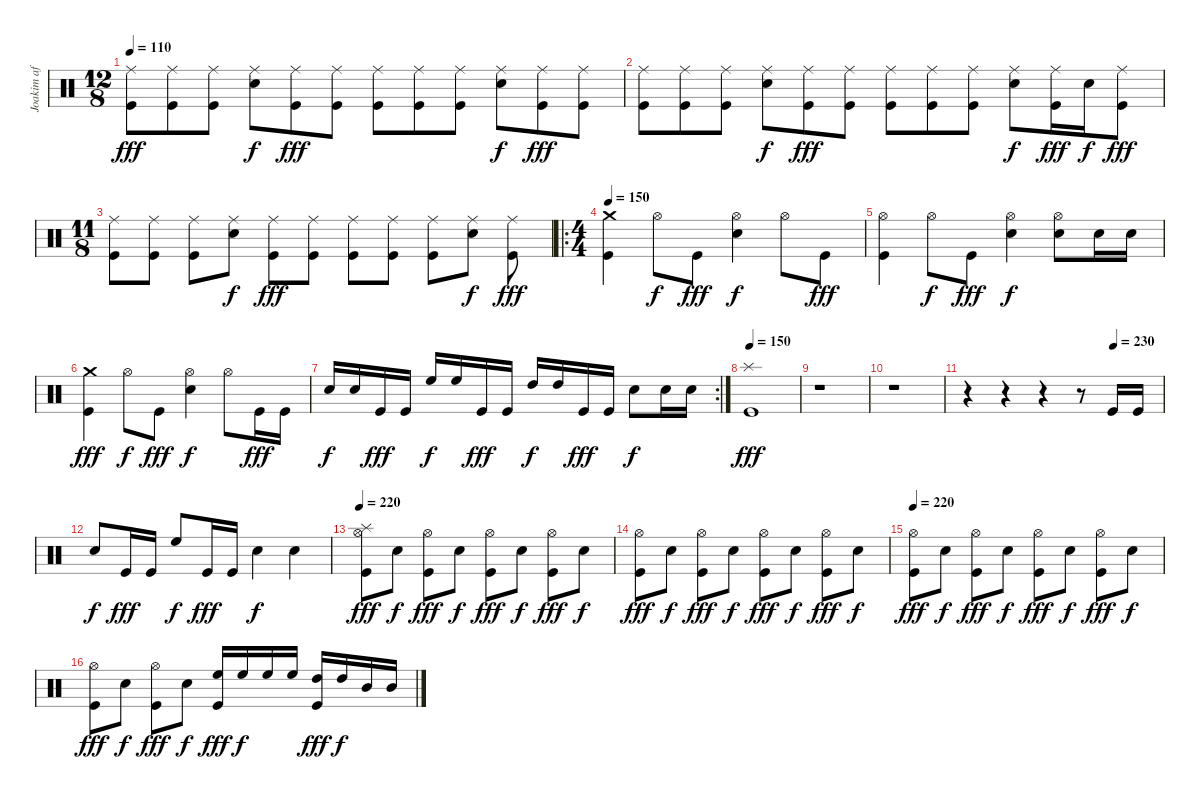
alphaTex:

\track ("Joakim af Grave" "Joakim af ") {instrument percussion}
\staff {score}
\articulation defaults
\ts (12 8)
\tempo 110
\clef neutral
\ks c
("Ride (middle)" "Kick (hit)").8{dy fff} ("Ride (middle)" "Kick (hit)").8 ("Ride (middle)" "Kick (hit)").8 ("Ride (middle)" "Electric Snare (hit)").8{dy f} ("Ride (middle)" "Kick (hit)").8{dy fff} ("Ride (middle)" "Kick (hit)").8 ("Ride (middle)" "Kick (hit)").8 ("Ride (middle)" "Kick (hit)").8 ("Ride (middle)" "Kick (hit)").8 ("Ride (middle)" "Electric Snare (hit)").8{dy f} ("Ride (middle)" "Kick (hit)").8{dy fff} ("Ride (middle)" "Kick (hit)").8 |
("Ride (middle)" "Kick (hit)").8 ("Ride (middle)" "Kick (hit)").8 ("Ride (middle)" "Kick (hit)").8 ("Ride (middle)" "Electric Snare (hit)").8{dy f} ("Ride (middle)" "Kick (hit)").8{dy fff} ("Ride (middle)" "Kick (hit)").8 ("Ride (middle)" "Kick (hit)").8 ("Ride (middle)" "Kick (hit)").8 ("Ride (middle)" "Kick (hit)").8 ("Ride (middle)" "Electric Snare (hit)").8{dy f} ("Ride (middle)" "Kick (hit)").16{dy fff} "Electric Snare (hit)".16{dy f} ("Ride (middle)" "Kick (hit)").8{dy fff} |
\ts (11 8)
("Ride (middle)" "Kick (hit)").8 ("Ride (middle)" "Kick (hit)").8 ("Ride (middle)" "Kick (hit)").8 ("Ride (middle)" "Electric Snare (hit)").8{dy f} ("Ride (middle)" "Kick (hit)").8{dy fff} ("Ride (middle)" "Kick (hit)").8 ("Ride (middle)" "Kick (hit)").8 ("Ride (middle)" "Kick (hit)").8 ("Ride (middle)" "Kick (hit)").8 ("Ride (middle)" "Electric Snare (hit)").8{dy f} ("Ride (middle)" "Kick (hit)").8{dy fff} |
\ro
\ts (4 4)
\tempo 150
("Crash medium (hit)" "Kick (hit)").4 "Hi-Hat (open)".8{dy f} "Kick (hit)".8{dy fff} ("Hi-Hat (open)" "Electric Snare (hit)").4{dy f} "Hi-Hat (open)".8 "Kick (hit)".8{dy fff} |
("Hi-Hat (open)" "Kick (hit)").4 "Hi-Hat (open)".8{dy f} "Kick (hit)".8{dy fff} ("Hi-Hat (open)" "Electric Snare (hit)").4{dy f} ("Hi-Hat (open)" "Electric Snare (hit)").8 "Electric Snare (hit)".16 "Electric Snare (hit)".16 |
("Crash medium (hit)" "Kick (hit)").4{dy fff} "Hi-Hat (open)".8{dy f} "Kick (hit)".8{dy fff} ("Hi-Hat (open)" "Electric Snare (hit)").4{dy f} "Hi-Hat (open)".8 "Kick (hit)".16{dy fff} "Kick (hit)".16 |
\rc 2 "Electric Snare (hit)".16{dy f} "Electric Snare (hit)".16 "Kick (hit)".16{dy fff} "Kick (hit)".16 "High Floor Tom (hit)".16{dy f} "High Floor Tom (hit)".16 "Kick (hit)".16{dy fff} "Kick (hit)".16 "High Tom (hit)".16{dy f} "High Tom (hit)".16 "Kick (hit)".16{dy fff} "Kick (hit)".16 "Electric Snare (hit)".8{dy f} "Electric Snare (hit)".16 "Electric Snare (hit)".16
|
\tempo 150
("Splash (hit)" "Kick (hit)").1{dy fff} |
r.1 |
r.1 |
\tempo (230 0.75)
r.4 r.4 r.4 r.8 "Kick (hit)".16 "Kick (hit)".16 |
"Electric Snare (hit)".8{dy f} "Kick (hit)".16{dy fff} "Kick (hit)".16 "High Floor Tom (hit)".8{dy f} "Kick (hit)".16{dy fff} "Kick (hit)".16 "Electric Snare (hit)".4{dy f} "Electric Snare (hit)".4 |
\tempo 220
("Splash (hit)" "Hi-Hat (open)" "Kick (hit)").8{dy fff} "Electric Snare (hit)".8{dy f} ("Hi-Hat (open)" "Kick (hit)").8{dy fff} "Electric Snare (hit)".8{dy f} ("Hi-Hat (open)" "Kick (hit)").8{dy fff} "Electric Snare (hit)".8{dy f} ("Hi-Hat (open)" "Kick (hit)").8{dy fff} "Electric Snare (hit)".8{dy f} |
("Hi-Hat (open)" "Kick (hit)").8{dy fff} "Electric Snare (hit)".8{dy f} ("Hi-Hat (open)" "Kick (hit)").8{dy fff} "Electric Snare (hit)".8{dy f} ("Hi-Hat (open)" "Kick (hit)").8{dy fff} "Electric Snare (hit)".8{dy f} ("Hi-Hat (open)" "Kick (hit)").8{dy fff} "Electric Snare (hit)".8{dy f} |
\tempo 220
("Hi-Hat (open)" "Kick (hit)").8{dy fff} "Electric Snare (hit)".8{dy f} ("Hi-Hat (open)" "Kick (hit)").8{dy fff} "Electric Snare (hit)".8{dy f} ("Hi-Hat (open)" "Kick (hit)").8{dy fff} "Electric Snare (hit)".8{dy f} ("Hi-Hat (open)" "Kick (hit)").8{dy fff} "Electric Snare (hit)".8{dy f} |
("Hi-Hat (open)" "Kick (hit)").8{dy fff} "Electric Snare (hit)".8{dy f} ("Hi-Hat (open)" "Kick (hit)").8{dy fff} "Electric Snare (hit)".8{dy f} ("High Floor Tom (hit)" "Kick (hit)").16{dy fff} "High Floor Tom (hit)".16{dy f} "High Floor Tom (hit)".16 "High Floor Tom (hit)".16 ("High Tom (hit)" "Kick (hit)").16{dy fff} "High Tom (hit)".16{dy f} "Mid Tom (hit)".16 "Mid Tom (hit)".16
